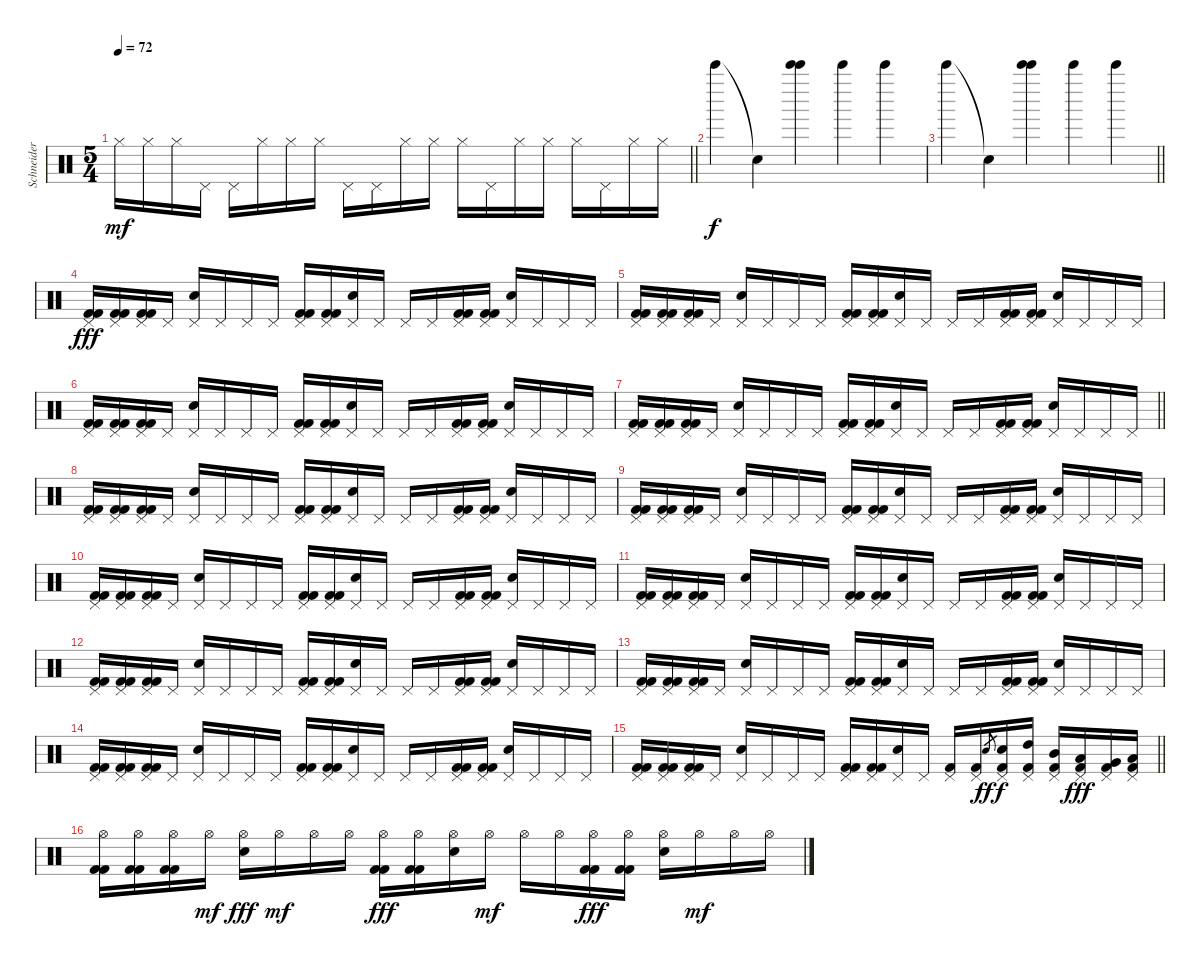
\track ("Schneider" "Schneider") {instrument percussion}
\staff {score}
\articulation defaults
\ts (5 4)
\tempo 72
\clef neutral
\barLineRight lightlight
\ks c "Hi-Hat (closed)".16{dy mf} "Hi-Hat (closed)".16 "Hi-Hat (closed)".16 "Pedal Hi-Hat (hit)".16 "Pedal Hi-Hat (hit)".16 "Hi-Hat (closed)".16 "Hi-Hat (closed)".16 "Hi-Hat (closed)".16 "Pedal Hi-Hat (hit)".16 "Pedal Hi-Hat (hit)".16 "Hi-Hat (closed)".16 "Hi-Hat (closed)".16 "Hi-Hat (closed)".16 "Pedal Hi-Hat (hit)".16 "Hi-Hat (closed)".16 "Hi-Hat (closed)".16 "Hi-Hat (closed)".16 "Pedal Hi-Hat (hit)".16 "Hi-Hat (closed)".16 "Hi-Hat (closed)".16
|
"Bell Tree (hit)".4{dy f volume 6} "Snare (hit)"{t}.4 ("Bell Tree (hit)" "Bell Tree (hit)").4 "Bell Tree (hit)".4 "Bell Tree (hit)".4 |
\barLineRight lightlight "Bell Tree (hit)".4{volume 6} "Snare (hit)"{t}.4
("Bell Tree (hit)" "Bell Tree (hit)").4 "Bell Tree (hit)".4 "Bell Tree (hit)".4 |
("Pedal Hi-Hat (hit)" "Kick (hit) 2" "Kick (hit) 2").16{dy fff} ("Pedal Hi-Hat (hit)" "Kick (hit) 2" "Kick (hit) 2").16 ("Pedal Hi-Hat (hit)" "Kick (hit) 2" "Kick (hit) 2").16 "Pedal Hi-Hat (hit)".16 ("Pedal Hi-Hat (hit)" "Snare (hit) 2").16 "Pedal Hi-Hat (hit)".16 "Pedal Hi-Hat (hit)".16 "Pedal Hi-Hat (hit)".16 ("Pedal Hi-Hat (hit)" "Kick (hit) 2" "Kick (hit) 2").16 ("Pedal Hi-Hat (hit)" "Kick (hit) 2" "Kick (hit) 2").16 ("Pedal Hi-Hat (hit)" "Snare (hit) 2").16 "Pedal Hi-Hat (hit)".16 "Pedal Hi-Hat (hit)".16 "Pedal Hi-Hat (hit)".16 ("Pedal Hi-Hat (hit)" "Kick (hit) 2" "Kick (hit) 2").16 ("Pedal Hi-Hat (hit)" "Kick (hit) 2" "Kick (hit) 2").16 ("Pedal Hi-Hat (hit)" "Snare (hit) 2").16 "Pedal Hi-Hat (hit)".16 "Pedal Hi-Hat (hit)".16 "Pedal Hi-Hat (hit)".16 |
("Pedal Hi-Hat (hit)" "Kick (hit) 2" "Kick (hit) 2").16 ("Pedal Hi-Hat (hit)" "Kick (hit) 2" "Kick (hit) 2").16 ("Pedal Hi-Hat (hit)" "Kick (hit) 2" "Kick (hit) 2").16 "Pedal Hi-Hat (hit)".16 ("Pedal Hi-Hat (hit)" "Snare (hit) 2").16 "Pedal Hi-Hat (hit)".16 "Pedal Hi-Hat (hit)".16 "Pedal Hi-Hat (hit)".16 ("Pedal Hi-Hat (hit)" "Kick (hit) 2" "Kick (hit) 2").16 ("Pedal Hi-Hat (hit)" "Kick (hit) 2" "Kick (hit) 2").16 ("Pedal Hi-Hat (hit)" "Snare (hit) 2").16 "Pedal Hi-Hat (hit)".16 "Pedal Hi-Hat (hit)".16 "Pedal Hi-Hat (hit)".16 ("Pedal Hi-Hat (hit)" "Kick (hit) 2" "Kick (hit) 2").16 ("Pedal Hi-Hat (hit)" "Kick (hit) 2" "Kick (hit) 2").16 ("Pedal Hi-Hat (hit)" "Snare (hit) 2").16 "Pedal Hi-Hat (hit)".16 "Pedal Hi-Hat (hit)".16 "Pedal Hi-Hat (hit)".16 |
("Pedal Hi-Hat (hit)" "Kick (hit) 2" "Kick (hit) 2").16 ("Pedal Hi-Hat (hit)" "Kick (hit) 2" "Kick (hit) 2").16 ("Pedal Hi-Hat (hit)" "Kick (hit) 2" "Kick (hit) 2").16 "Pedal Hi-Hat (hit)".16 ("Pedal Hi-Hat (hit)" "Snare (hit) 2").16 "Pedal Hi-Hat (hit)".16 "Pedal Hi-Hat (hit)".16 "Pedal Hi-Hat (hit)".16 ("Pedal Hi-Hat (hit)" "Kick (hit) 2" "Kick (hit) 2").16 ("Pedal Hi-Hat (hit)" "Kick (hit) 2" "Kick (hit) 2").16 ("Pedal Hi-Hat (hit)" "Snare (hit) 2").16 "Pedal Hi-Hat (hit)".16 "Pedal Hi-Hat (hit)".16 "Pedal Hi-Hat (hit)".16 ("Pedal Hi-Hat (hit)" "Kick (hit) 2" "Kick (hit) 2").16 ("Pedal Hi-Hat (hit)" "Kick (hit) 2" "Kick (hit) 2").16 ("Pedal Hi-Hat (hit)" "Snare (hit) 2").16 "Pedal Hi-Hat (hit)".16 "Pedal Hi-Hat (hit)".16 "Pedal Hi-Hat (hit)".16 |
\barLineRight lightlight
("Pedal Hi-Hat (hit)" "Kick (hit) 2" "Kick (hit) 2").16 ("Pedal Hi-Hat (hit)" "Kick (hit) 2" "Kick (hit) 2").16 ("Pedal Hi-Hat (hit)" "Kick (hit) 2" "Kick (hit) 2").16 "Pedal Hi-Hat (hit)".16 ("Pedal Hi-Hat (hit)" "Snare (hit) 2").16 "Pedal Hi-Hat (hit)".16 "Pedal Hi-Hat (hit)".16 "Pedal Hi-Hat (hit)".16 ("Pedal Hi-Hat (hit)" "Kick (hit) 2" "Kick (hit) 2").16 ("Pedal Hi-Hat (hit)" "Kick (hit) 2" "Kick (hit) 2").16 ("Pedal Hi-Hat (hit)" "Snare (hit) 2").16 "Pedal Hi-Hat (hit)".16 "Pedal Hi-Hat (hit)".16 "Pedal Hi-Hat (hit)".16 ("Pedal Hi-Hat (hit)" "Kick (hit) 2" "Kick (hit) 2").16 ("Pedal Hi-Hat (hit)" "Kick (hit) 2" "Kick (hit) 2").16 ("Pedal Hi-Hat (hit)" "Snare (hit) 2").16 "Pedal Hi-Hat (hit)".16 "Pedal Hi-Hat (hit)".16 "Pedal Hi-Hat (hit)".16 |
("Pedal Hi-Hat (hit)" "Kick (hit) 2" "Kick (hit) 2").16 ("Pedal Hi-Hat (hit)" "Kick (hit) 2" "Kick (hit) 2").16 ("Pedal Hi-Hat (hit)" "Kick (hit) 2" "Kick (hit) 2").16 "Pedal Hi-Hat (hit)".16 ("Pedal Hi-Hat (hit)" "Snare (hit) 2").16 "Pedal Hi-Hat (hit)".16 "Pedal Hi-Hat (hit)".16 "Pedal Hi-Hat (hit)".16 ("Pedal Hi-Hat (hit)" "Kick (hit) 2" "Kick (hit) 2").16 ("Pedal Hi-Hat (hit)" "Kick (hit) 2" "Kick (hit) 2").16 ("Pedal Hi-Hat (hit)" "Snare (hit) 2").16 "Pedal Hi-Hat (hit)".16 "Pedal Hi-Hat (hit)".16 "Pedal Hi-Hat (hit)".16 ("Pedal Hi-Hat (hit)" "Kick (hit) 2" "Kick (hit) 2").16 ("Pedal Hi-Hat (hit)" "Kick (hit) 2" "Kick (hit) 2").16 ("Pedal Hi-Hat (hit)" "Snare (hit) 2").16 "Pedal Hi-Hat (hit)".16 "Pedal Hi-Hat (hit)".16 "Pedal Hi-Hat (hit)".16 |
("Pedal Hi-Hat (hit)" "Kick (hit) 2" "Kick (hit) 2").16 ("Pedal Hi-Hat (hit)" "Kick (hit) 2" "Kick (hit) 2").16 ("Pedal Hi-Hat (hit)" "Kick (hit) 2" "Kick (hit) 2").16 "Pedal Hi-Hat (hit)".16 ("Pedal Hi-Hat (hit)" "Snare (hit) 2").16 "Pedal Hi-Hat (hit)".16 "Pedal Hi-Hat (hit)".16 "Pedal Hi-Hat (hit)".16 ("Pedal Hi-Hat (hit)" "Kick (hit) 2" "Kick (hit) 2").16 ("Pedal Hi-Hat (hit)" "Kick (hit) 2" "Kick (hit) 2").16 ("Pedal Hi-Hat (hit)" "Snare (hit) 2").16 "Pedal Hi-Hat (hit)".16 "Pedal Hi-Hat (hit)".16 "Pedal Hi-Hat (hit)".16 ("Pedal Hi-Hat (hit)" "Kick (hit) 2" "Kick (hit) 2").16 ("Pedal Hi-Hat (hit)" "Kick (hit) 2" "Kick (hit) 2").16 ("Pedal Hi-Hat (hit)" "Snare (hit) 2").16 "Pedal Hi-Hat (hit)".16 "Pedal Hi-Hat (hit)".16 "Pedal Hi-Hat (hit)".16 |
("Pedal Hi-Hat (hit)" "Kick (hit) 2" "Kick (hit) 2").16 ("Pedal Hi-Hat (hit)" "Kick (hit) 2" "Kick (hit) 2").16 ("Pedal Hi-Hat (hit)" "Kick (hit) 2" "Kick (hit) 2").16 "Pedal Hi-Hat (hit)".16 ("Pedal Hi-Hat (hit)" "Snare (hit) 2").16 "Pedal Hi-Hat (hit)".16 "Pedal Hi-Hat (hit)".16 "Pedal Hi-Hat (hit)".16 ("Pedal Hi-Hat (hit)" "Kick (hit) 2" "Kick (hit) 2").16 ("Pedal Hi-Hat (hit)" "Kick (hit) 2" "Kick (hit) 2").16 ("Pedal Hi-Hat (hit)" "Snare (hit) 2").16 "Pedal Hi-Hat (hit)".16 "Pedal Hi-Hat (hit)".16 "Pedal Hi-Hat (hit)".16 ("Pedal Hi-Hat (hit)" "Kick (hit) 2" "Kick (hit) 2").16 ("Pedal Hi-Hat (hit)" "Kick (hit) 2" "Kick (hit) 2").16 ("Pedal Hi-Hat (hit)" "Snare (hit) 2").16 "Pedal Hi-Hat (hit)".16 "Pedal Hi-Hat (hit)".16 "Pedal Hi-Hat (hit)".16 |
("Pedal Hi-Hat (hit)" "Kick (hit) 2" "Kick (hit) 2").16 ("Pedal Hi-Hat (hit)" "Kick (hit) 2" "Kick (hit) 2").16 ("Pedal Hi-Hat (hit)" "Kick (hit) 2" "Kick (hit) 2").16 "Pedal Hi-Hat (hit)".16 ("Pedal Hi-Hat (hit)" "Snare (hit) 2").16 "Pedal Hi-Hat (hit)".16 "Pedal Hi-Hat (hit)".16 "Pedal Hi-Hat (hit)".16 ("Pedal Hi-Hat (hit)" "Kick (hit) 2" "Kick (hit) 2").16 ("Pedal Hi-Hat (hit)" "Kick (hit) 2" "Kick (hit) 2").16 ("Pedal Hi-Hat (hit)" "Snare (hit) 2").16 "Pedal Hi-Hat (hit)".16 "Pedal Hi-Hat (hit)".16 "Pedal Hi-Hat (hit)".16 ("Pedal Hi-Hat (hit)" "Kick (hit) 2" "Kick (hit) 2").16 ("Pedal Hi-Hat (hit)" "Kick (hit) 2" "Kick (hit) 2").16 ("Pedal Hi-Hat (hit)" "Snare (hit) 2").16 "Pedal Hi-Hat (hit)".16 "Pedal Hi-Hat (hit)".16 "Pedal Hi-Hat (hit)".16 |
("Pedal Hi-Hat (hit)" "Kick (hit) 2" "Kick (hit) 2").16 ("Pedal Hi-Hat (hit)" "Kick (hit) 2" "Kick (hit) 2").16 ("Pedal Hi-Hat (hit)" "Kick (hit) 2" "Kick (hit) 2").16 "Pedal Hi-Hat (hit)".16 ("Pedal Hi-Hat (hit)" "Snare (hit) 2").16 "Pedal Hi-Hat (hit)".16 "Pedal Hi-Hat (hit)".16 "Pedal Hi-Hat (hit)".16 ("Pedal Hi-Hat (hit)" "Kick (hit) 2" "Kick (hit) 2").16 ("Pedal Hi-Hat (hit)" "Kick (hit) 2" "Kick (hit) 2").16 ("Pedal Hi-Hat (hit)" "Snare (hit) 2").16 "Pedal Hi-Hat (hit)".16 "Pedal Hi-Hat (hit)".16 "Pedal Hi-Hat (hit)".16 ("Pedal Hi-Hat (hit)" "Kick (hit) 2" "Kick (hit) 2").16 ("Pedal Hi-Hat (hit)" "Kick (hit) 2" "Kick (hit) 2").16 ("Pedal Hi-Hat (hit)" "Snare (hit) 2").16 "Pedal Hi-Hat (hit)".16 "Pedal Hi-Hat (hit)".16 "Pedal Hi-Hat (hit)".16 |
("Pedal Hi-Hat (hit)" "Kick (hit) 2" "Kick (hit) 2").16 ("Pedal Hi-Hat (hit)" "Kick (hit) 2" "Kick (hit) 2").16 ("Pedal Hi-Hat (hit)" "Kick (hit) 2" "Kick (hit) 2").16 "Pedal Hi-Hat (hit)".16 ("Pedal Hi-Hat (hit)" "Snare (hit) 2").16 "Pedal Hi-Hat (hit)".16 "Pedal Hi-Hat (hit)".16 "Pedal Hi-Hat (hit)".16 ("Pedal Hi-Hat (hit)" "Kick (hit) 2" "Kick (hit) 2").16 ("Pedal Hi-Hat (hit)" "Kick (hit) 2" "Kick (hit) 2").16 ("Pedal Hi-Hat (hit)" "Snare (hit) 2").16 "Pedal Hi-Hat (hit)".16 "Pedal Hi-Hat (hit)".16 "Pedal Hi-Hat (hit)".16 ("Pedal Hi-Hat (hit)" "Kick (hit) 2" "Kick (hit) 2").16 ("Pedal Hi-Hat (hit)" "Kick (hit) 2" "Kick (hit) 2").16 ("Pedal Hi-Hat (hit)" "Snare (hit) 2").16 "Pedal Hi-Hat (hit)".16 "Pedal Hi-Hat (hit)".16 "Pedal Hi-Hat (hit)".16 |
("Pedal Hi-Hat (hit)" "Kick (hit) 2" "Kick (hit) 2").16 ("Pedal Hi-Hat (hit)" "Kick (hit) 2" "Kick (hit) 2").16 ("Pedal Hi-Hat (hit)" "Kick (hit) 2" "Kick (hit) 2").16 "Pedal Hi-Hat (hit)".16 ("Pedal Hi-Hat (hit)" "Snare (hit) 2").16 "Pedal Hi-Hat (hit)".16 "Pedal Hi-Hat (hit)".16 "Pedal Hi-Hat (hit)".16 ("Pedal Hi-Hat (hit)" "Kick (hit) 2" "Kick (hit) 2").16 ("Pedal Hi-Hat (hit)" "Kick (hit) 2" "Kick (hit) 2").16 ("Pedal Hi-Hat (hit)" "Snare (hit) 2").16 "Pedal Hi-Hat (hit)".16 "Pedal Hi-Hat (hit)".16 "Pedal Hi-Hat (hit)".16 ("Pedal Hi-Hat (hit)" "Kick (hit) 2" "Kick (hit) 2").16 ("Pedal Hi-Hat (hit)" "Kick (hit) 2" "Kick (hit) 2").16 ("Pedal Hi-Hat (hit)" "Snare (hit) 2").16 "Pedal Hi-Hat (hit)".16 "Pedal Hi-Hat (hit)".16 "Pedal Hi-Hat (hit)".16 |
\barLineRight lightlight
("Pedal Hi-Hat (hit)" "Kick (hit) 2" "Kick (hit) 2").16 ("Pedal Hi-Hat (hit)" "Kick (hit) 2" "Kick (hit) 2").16 ("Pedal Hi-Hat (hit)" "Kick (hit) 2" "Kick (hit) 2").16 "Pedal Hi-Hat (hit)".16 ("Pedal Hi-Hat (hit)" "Snare (hit) 2").16 "Pedal Hi-Hat (hit)".16 "Pedal Hi-Hat (hit)".16 "Pedal Hi-Hat (hit)".16 ("Pedal Hi-Hat (hit)" "Kick (hit) 2" "Kick (hit) 2").16 ("Pedal Hi-Hat (hit)" "Kick (hit) 2" "Kick (hit) 2").16 ("Pedal Hi-Hat (hit)" "Snare (hit) 2").16 "Pedal Hi-Hat (hit)".16 ("Pedal Hi-Hat (hit)" "Kick (hit) 2").16 ("Pedal Hi-Hat (hit)" "Kick (hit) 2").16 "Snare (hit) 2".8{gr dy ff} ("Pedal Hi-Hat (hit)" "Snare (hit) 2" "Kick (hit) 2").16{dy f} ("Pedal Hi-Hat (hit)" "High Tom (hit)" "Kick (hit) 2").16 ("Pedal Hi-Hat (hit)" "Mid Tom (hit)" "Kick (hit) 2").16 ("Pedal Hi-Hat (hit)" "Low Tom (hit)" "Kick (hit) 2").16{dy fff} ("Pedal Hi-Hat (hit)" "Very Low Tom (hit)" "Kick (hit) 2").16 ("Pedal Hi-Hat (hit)" "Low Floor Tom (hit)" "Kick (hit) 2").16 |
("Hi-Hat (open)" "Kick (hit) 2" "Kick (hit) 2").16 ("Hi-Hat (open)" "Kick (hit) 2" "Kick (hit) 2").16 ("Hi-Hat (open)" "Kick (hit) 2" "Kick (hit) 2").16 "Hi-Hat (open)".16{dy mf} ("Hi-Hat (open)" "Snare (hit) 2").16{dy fff} "Hi-Hat (open)".16{dy mf} "Hi-Hat (open)".16 "Hi-Hat (open)".16 ("Hi-Hat (open)" "Kick (hit) 2" "Kick (hit) 2").16{dy fff} ("Hi-Hat (open)" "Kick (hit) 2" "Kick (hit) 2").16 ("Hi-Hat (open)" "Snare (hit) 2").16 "Hi-Hat (open)".16{dy mf} "Hi-Hat (open)".16 "Hi-Hat (open)".16 ("Hi-Hat (open)" "Kick (hit) 2" "Kick (hit) 2").16{dy fff} ("Hi-Hat (open)" "Kick (hit) 2" "Kick (hit) 2").16 ("Hi-Hat (open)" "Snare (hit) 2").16 "Hi-Hat (open)".16{dy mf} "Hi-Hat (open)".16 "Hi-Hat (open)".16
